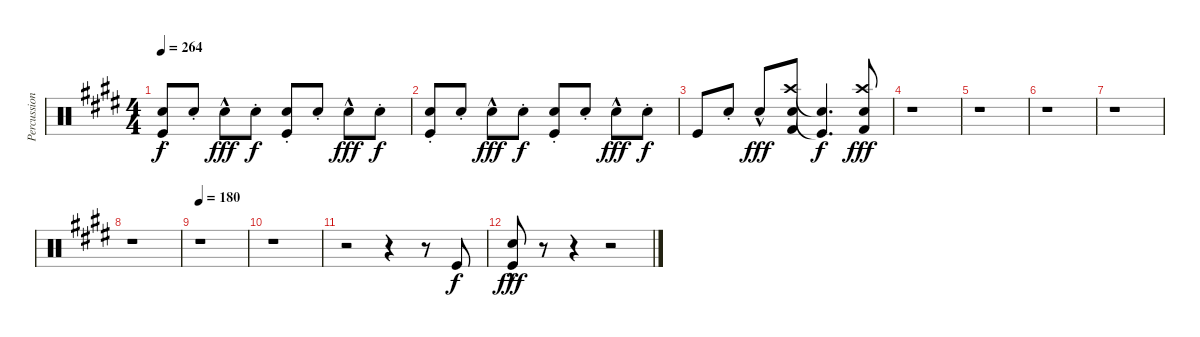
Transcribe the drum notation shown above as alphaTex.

\track ("Percussion" "Percussion") {instrument percussion}
\staff {score}
\articulation defaults
\ts (4 4)
\tempo 264
\clef neutral
\ks e
("Snare (hit) 2"{st} "Kick (hit)").8{dy f} "Snare (hit) 2"{st}.8 "Snare (hit) 2"{hac}.8{dy fff} "Snare (hit) 2"{st}.8{dy f} ("Snare (hit) 2"{st} "Kick (hit)").8 "Snare (hit) 2"{st}.8 "Snare (hit) 2"{hac}.8{dy fff} "Snare (hit) 2"{st}.8{dy f} |
("Snare (hit) 2"{st} "Kick (hit)").8 "Snare (hit) 2"{st}.8 "Snare (hit) 2"{hac}.8{dy fff} "Snare (hit) 2"{st}.8{dy f} ("Snare (hit) 2"{st} "Kick (hit)").8 "Snare (hit) 2"{st}.8 "Snare (hit) 2"{hac}.8{dy fff} "Snare (hit) 2"{st}.8{dy f} |
"Kick (hit)".8 "Snare (hit) 2"{st}.8 "Snare (hit) 2"{hac}.8{dy fff} ("Crash high (hit)" "Snare (hit) 2" "Kick (hit) 2").8 ("Snare (hit) 2"{t} "Kick (hit)"{t}).4{d dy f} ("Crash high (hit)" "Snare (hit) 2" "Kick (hit) 2").8{dy fff} |
r.1 |
r.1 |
r.1 |
r.1 |
r.1 |
\tempo 180
r.1 |
r.1 |
r.2 r.4 r.8 "Kick (hit)".8{dy f} |
("Snare (hit) 2"{hac} "Kick (hit)").8{dy fff} r.8 r.4 r.2
